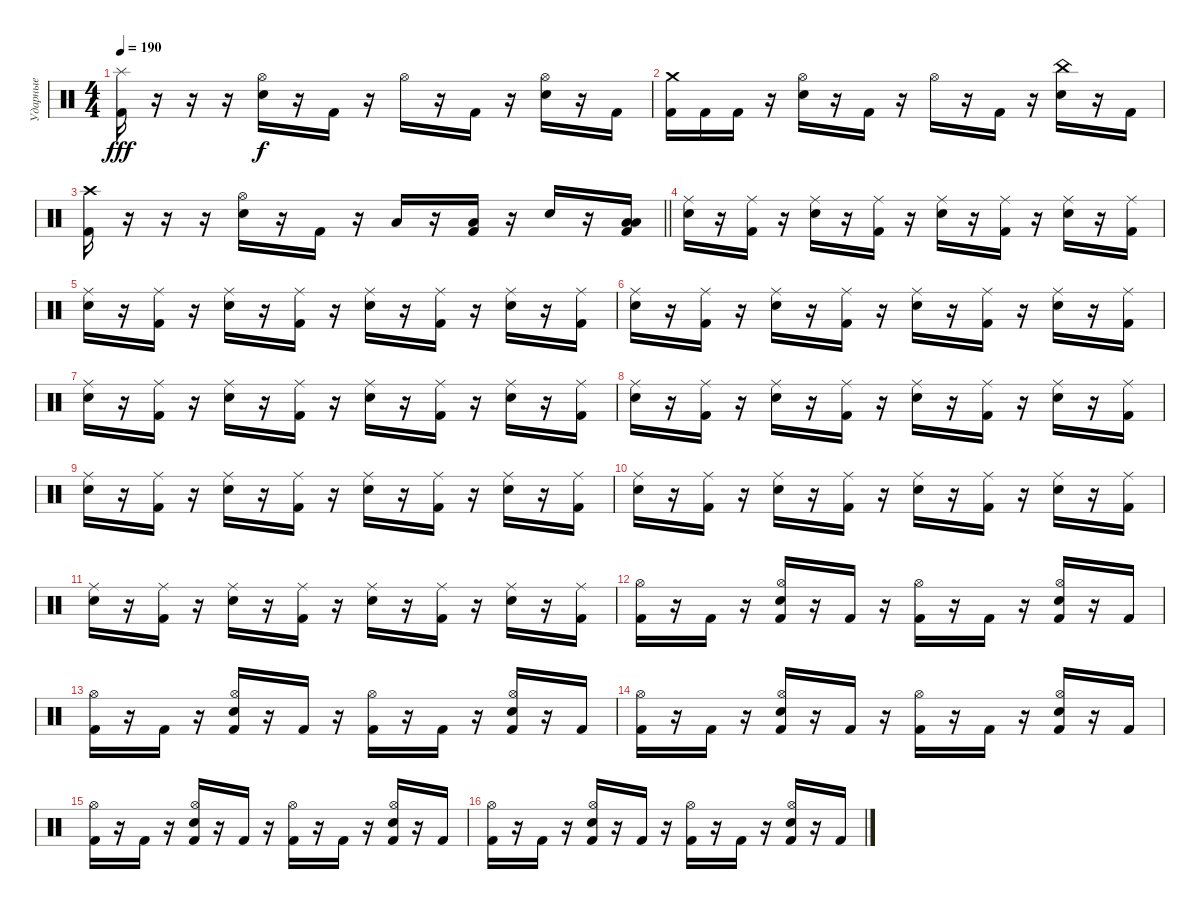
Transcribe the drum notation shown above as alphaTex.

\track ("Ударные" "Ударные") {instrument percussion}
\staff {score}
\articulation defaults
\ts (4 4)
\tempo 190
\clef neutral
\ks c
("Splash (hit)" "Kick (hit) 2").16{dy fff} r.16 r.16 r.16 ("Hi-Hat (open)" "Snare (hit) 2").16{dy f} r.16 "Kick (hit) 2".16 r.16 "Hi-Hat (open)".16 r.16 "Kick (hit) 2".16 r.16 ("Hi-Hat (open)" "Snare (hit) 2").16 r.16 "Kick (hit) 2".16 |
("Crash medium (hit)" "Kick (hit) 2").16 "Kick (hit) 2".16 "Kick (hit) 2".16 r.16 ("Hi-Hat (open)" "Snare (hit) 2").16 r.16 "Kick (hit) 2".16 r.16 "Hi-Hat (open)".16 r.16 "Kick (hit) 2".16 r.16 ("China (hit)" "Snare (hit) 2").16 r.16 "Kick (hit) 2".16 |
\barLineRight lightlight
("Crash high (hit)" "Kick (hit) 2").16 r.16 r.16 r.16 ("Hi-Hat (open)" "Snare (hit) 2").16 r.16 "Kick (hit) 2".16 r.16 "Low Tom (hit)".16 r.16 ("Low Tom (hit)" "Kick (hit) 2").16 r.16 "Snare (hit) 2".16 r.16 ("Low Tom (hit)" "Low Floor Tom (hit)" "Kick (hit) 2").16 |
("Ride (middle)" "Snare (hit) 2").16 r.16 ("Ride (middle)" "Kick (hit) 2").16 r.16 ("Ride (middle)" "Snare (hit) 2").16 r.16 ("Ride (middle)" "Kick (hit) 2").16 r.16 ("Ride (middle)" "Snare (hit) 2").16 r.16 ("Ride (middle)" "Kick (hit) 2").16 r.16 ("Ride (middle)" "Snare (hit) 2").16 r.16 ("Ride (middle)" "Kick (hit) 2").16 |
("Ride (middle)" "Snare (hit) 2").16 r.16 ("Ride (middle)" "Kick (hit) 2").16 r.16 ("Ride (middle)" "Snare (hit) 2").16 r.16 ("Ride (middle)" "Kick (hit) 2").16 r.16 ("Ride (middle)" "Snare (hit) 2").16 r.16 ("Ride (middle)" "Kick (hit) 2").16 r.16 ("Ride (middle)" "Snare (hit) 2").16 r.16 ("Ride (middle)" "Kick (hit) 2").16 |
("Ride (middle)" "Snare (hit) 2").16 r.16 ("Ride (middle)" "Kick (hit) 2").16 r.16 ("Ride (middle)" "Snare (hit) 2").16 r.16 ("Ride (middle)" "Kick (hit) 2").16 r.16 ("Ride (middle)" "Snare (hit) 2").16 r.16 ("Ride (middle)" "Kick (hit) 2").16 r.16 ("Ride (middle)" "Snare (hit) 2").16 r.16 ("Ride (middle)" "Kick (hit) 2").16 |
("Ride (middle)" "Snare (hit) 2").16 r.16 ("Ride (middle)" "Kick (hit) 2").16 r.16 ("Ride (middle)" "Snare (hit) 2").16 r.16 ("Ride (middle)" "Kick (hit) 2").16 r.16 ("Ride (middle)" "Snare (hit) 2").16 r.16 ("Ride (middle)" "Kick (hit) 2").16 r.16 ("Ride (middle)" "Snare (hit) 2").16 r.16 ("Ride (middle)" "Kick (hit) 2").16 |
("Ride (middle)" "Snare (hit) 2").16 r.16 ("Ride (middle)" "Kick (hit) 2").16 r.16 ("Ride (middle)" "Snare (hit) 2").16 r.16 ("Ride (middle)" "Kick (hit) 2").16 r.16 ("Ride (middle)" "Snare (hit) 2").16 r.16 ("Ride (middle)" "Kick (hit) 2").16 r.16 ("Ride (middle)" "Snare (hit) 2").16 r.16 ("Ride (middle)" "Kick (hit) 2").16 |
("Ride (middle)" "Snare (hit) 2").16 r.16 ("Ride (middle)" "Kick (hit) 2").16 r.16 ("Ride (middle)" "Snare (hit) 2").16 r.16 ("Ride (middle)" "Kick (hit) 2").16 r.16 ("Ride (middle)" "Snare (hit) 2").16 r.16 ("Ride (middle)" "Kick (hit) 2").16 r.16 ("Ride (middle)" "Snare (hit) 2").16 r.16 ("Ride (middle)" "Kick (hit) 2").16 |
("Ride (middle)" "Snare (hit) 2").16 r.16 ("Ride (middle)" "Kick (hit) 2").16 r.16 ("Ride (middle)" "Snare (hit) 2").16 r.16 ("Ride (middle)" "Kick (hit) 2").16 r.16 ("Ride (middle)" "Snare (hit) 2").16 r.16 ("Ride (middle)" "Kick (hit) 2").16 r.16 ("Ride (middle)" "Snare (hit) 2").16 r.16 ("Ride (middle)" "Kick (hit) 2").16 |
("Ride (middle)" "Snare (hit) 2").16 r.16 ("Ride (middle)" "Kick (hit) 2").16 r.16 ("Ride (middle)" "Snare (hit) 2").16 r.16 ("Ride (middle)" "Kick (hit) 2").16 r.16 ("Ride (middle)" "Snare (hit) 2").16 r.16 ("Ride (middle)" "Kick (hit) 2").16 r.16 ("Ride (middle)" "Snare (hit) 2").16 r.16 ("Ride (middle)" "Kick (hit) 2").16 |
("Hi-Hat (open)" "Kick (hit) 2").16 r.16 "Kick (hit) 2".16 r.16 ("Hi-Hat (open)" "Snare (hit) 2" "Kick (hit) 2").16 r.16 "Kick (hit) 2".16 r.16 ("Hi-Hat (open)" "Kick (hit) 2").16 r.16 "Kick (hit) 2".16 r.16 ("Hi-Hat (open)" "Snare (hit) 2" "Kick (hit) 2").16 r.16 "Kick (hit) 2".16 |
("Hi-Hat (open)" "Kick (hit) 2").16 r.16 "Kick (hit) 2".16 r.16 ("Hi-Hat (open)" "Snare (hit) 2" "Kick (hit) 2").16 r.16 "Kick (hit) 2".16 r.16 ("Hi-Hat (open)" "Kick (hit) 2").16 r.16 "Kick (hit) 2".16 r.16 ("Hi-Hat (open)" "Snare (hit) 2" "Kick (hit) 2").16 r.16 "Kick (hit) 2".16 |
("Hi-Hat (open)" "Kick (hit) 2").16 r.16 "Kick (hit) 2".16 r.16 ("Hi-Hat (open)" "Snare (hit) 2" "Kick (hit) 2").16 r.16 "Kick (hit) 2".16 r.16 ("Hi-Hat (open)" "Kick (hit) 2").16 r.16 "Kick (hit) 2".16 r.16 ("Hi-Hat (open)" "Snare (hit) 2" "Kick (hit) 2").16 r.16 "Kick (hit) 2".16 |
("Hi-Hat (open)" "Kick (hit) 2").16 r.16 "Kick (hit) 2".16 r.16 ("Hi-Hat (open)" "Snare (hit) 2" "Kick (hit) 2").16 r.16 "Kick (hit) 2".16 r.16 ("Hi-Hat (open)" "Kick (hit) 2").16 r.16 "Kick (hit) 2".16 r.16 ("Hi-Hat (open)" "Snare (hit) 2" "Kick (hit) 2").16 r.16 "Kick (hit) 2".16 |
("Hi-Hat (open)" "Kick (hit) 2").16 r.16 "Kick (hit) 2".16 r.16 ("Hi-Hat (open)" "Snare (hit) 2" "Kick (hit) 2").16 r.16 "Kick (hit) 2".16 r.16 ("Hi-Hat (open)" "Kick (hit) 2").16 r.16 "Kick (hit) 2".16 r.16 ("Hi-Hat (open)" "Snare (hit) 2" "Kick (hit) 2").16 r.16 "Kick (hit) 2".16
